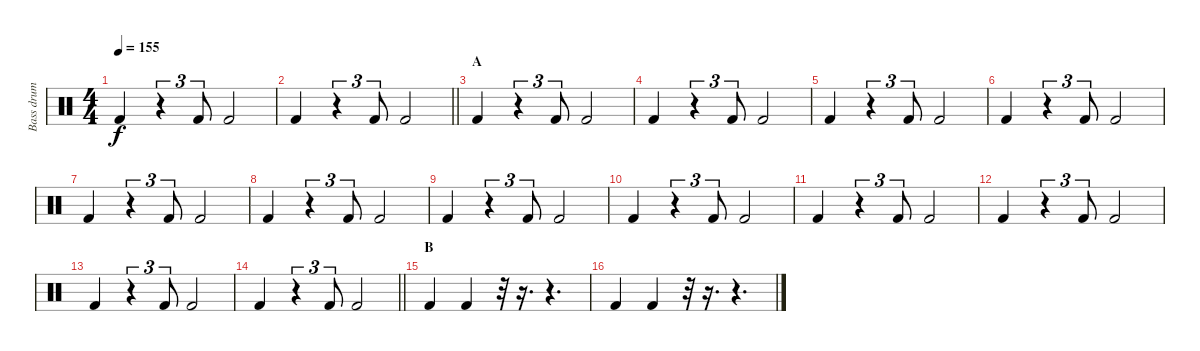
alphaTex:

\track ("Bass drum" "Bass drum") {instrument percussion}
\staff {score}
\articulation defaults
\ts (4 4)
\tempo 155
\clef neutral
\ks c "Kick (hit) 2".4{dy f}
r.4{tu (3 2)} "Kick (hit) 2".8{tu (3 2)} "Kick (hit) 2".2 |
\barLineRight lightlight "Kick (hit) 2".4
r.4{tu (3 2)} "Kick (hit) 2".8{tu (3 2)} "Kick (hit) 2".2 |
\section ("" "A")
"Kick (hit) 2".4 r.4{tu (3 2)} "Kick (hit) 2".8{tu (3 2)} "Kick (hit) 2".2 |
"Kick (hit) 2".4 r.4{tu (3 2)} "Kick (hit) 2".8{tu (3 2)} "Kick (hit) 2".2 |
"Kick (hit) 2".4 r.4{tu (3 2)} "Kick (hit) 2".8{tu (3 2)} "Kick (hit) 2".2 |
"Kick (hit) 2".4 r.4{tu (3 2)} "Kick (hit) 2".8{tu (3 2)} "Kick (hit) 2".2 |
"Kick (hit) 2".4 r.4{tu (3 2)} "Kick (hit) 2".8{tu (3 2)} "Kick (hit) 2".2 |
"Kick (hit) 2".4 r.4{tu (3 2)} "Kick (hit) 2".8{tu (3 2)} "Kick (hit) 2".2 |
"Kick (hit) 2".4 r.4{tu (3 2)} "Kick (hit) 2".8{tu (3 2)} "Kick (hit) 2".2 |
"Kick (hit) 2".4 r.4{tu (3 2)} "Kick (hit) 2".8{tu (3 2)} "Kick (hit) 2".2 |
"Kick (hit) 2".4 r.4{tu (3 2)} "Kick (hit) 2".8{tu (3 2)} "Kick (hit) 2".2 |
"Kick (hit) 2".4 r.4{tu (3 2)} "Kick (hit) 2".8{tu (3 2)} "Kick (hit) 2".2 |
"Kick (hit) 2".4 r.4{tu (3 2)} "Kick (hit) 2".8{tu (3 2)} "Kick (hit) 2".2 |
\barLineRight lightlight "Kick (hit) 2".4
r.4{tu (3 2)} "Kick (hit) 2".8{tu (3 2)} "Kick (hit) 2".2 |
\section ("" "B")
"Kick (hit) 2".4 "Kick (hit) 2".4 r.32 r.16{d} r.4{d} |
"Kick (hit) 2".4 "Kick (hit) 2".4 r.32 r.16{d} r.4{d}
